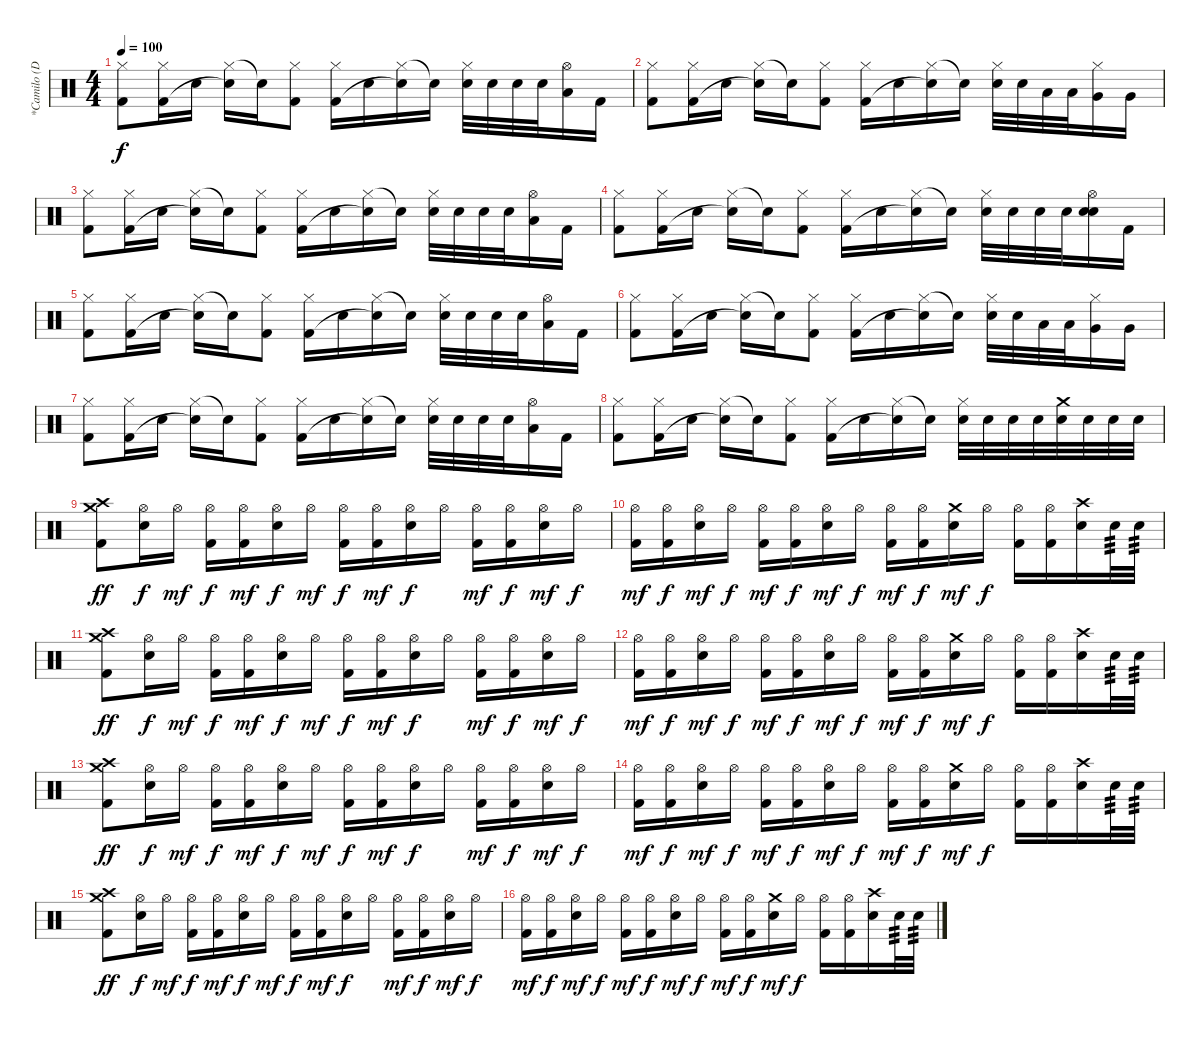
\track ("*Camilo (Drums)" "*Camilo (D") {instrument percussion}
\staff {score}
\articulation defaults
\ts (4 4)
\tempo 100
\clef neutral
\ks c
("Hi-Hat (closed)" "Kick (hit) 2").8{dy f} ("Hi-Hat (closed)" "Kick (hit) 2").16 "Electric Snare (hit)".16 ("Hi-Hat (closed)" "Snare (hit)"{t}).16 "Snare (hit)"{t}.16 ("Hi-Hat (closed)" "Kick (hit) 2").8 ("Hi-Hat (closed)" "Kick (hit) 2").16 "Electric Snare (hit)".16 ("Hi-Hat (closed)" "Snare (hit)"{t}).16 "Snare (hit)"{t}.16 ("Hi-Hat (closed)" "Electric Snare (hit)").32 "Electric Snare (hit)".32 "Electric Snare (hit)".32 "Electric Snare (hit)".32 ("Hi-Hat (open)" "Low Tom (hit)").16 "Kick (hit) 2".16 |
("Hi-Hat (closed)" "Kick (hit) 2").8 ("Hi-Hat (closed)" "Kick (hit) 2").16 "Electric Snare (hit)".16 ("Hi-Hat (closed)" "Snare (hit)"{t}).16 "Snare (hit)"{t}.16 ("Hi-Hat (closed)" "Kick (hit) 2").8 ("Hi-Hat (closed)" "Kick (hit) 2").16 "Electric Snare (hit)".16 ("Hi-Hat (closed)" "Snare (hit)"{t}).16 "Snare (hit)"{t}.16 ("Hi-Hat (closed)" "Electric Snare (hit)").32 "Electric Snare (hit)".32 "Low Tom (hit)".32 "Low Tom (hit)".32 ("Hi-Hat (closed)" "Very Low Tom (hit)").16 "Very Low Tom (hit)".16 |
("Hi-Hat (closed)" "Kick (hit) 2").8 ("Hi-Hat (closed)" "Kick (hit) 2").16 "Electric Snare (hit)".16 ("Hi-Hat (closed)" "Snare (hit)"{t}).16 "Snare (hit)"{t}.16 ("Hi-Hat (closed)" "Kick (hit) 2").8 ("Hi-Hat (closed)" "Kick (hit) 2").16 "Electric Snare (hit)".16 ("Hi-Hat (closed)" "Snare (hit)"{t}).16 "Snare (hit)"{t}.16 ("Hi-Hat (closed)" "Electric Snare (hit)").32 "Electric Snare (hit)".32 "Electric Snare (hit)".32 "Electric Snare (hit)".32 ("Hi-Hat (open)" "Low Tom (hit)").16 "Kick (hit) 2".16 |
("Hi-Hat (closed)" "Kick (hit) 2").8 ("Hi-Hat (closed)" "Kick (hit) 2").16 "Electric Snare (hit)".16 ("Hi-Hat (closed)" "Snare (hit)"{t}).16 "Snare (hit)"{t}.16 ("Hi-Hat (closed)" "Kick (hit) 2").8 ("Hi-Hat (closed)" "Kick (hit) 2").16 "Electric Snare (hit)".16 ("Hi-Hat (closed)" "Snare (hit)"{t}).16 "Snare (hit)"{t}.16 ("Hi-Hat (closed)" "Electric Snare (hit)").32 "Electric Snare (hit)".32 "Electric Snare (hit)".32 "Electric Snare (hit)".32 ("Hi-Hat (open)" "Electric Snare (hit)" "Electric Snare (hit)").16 "Kick (hit) 2".16 |
("Hi-Hat (closed)" "Kick (hit) 2").8 ("Hi-Hat (closed)" "Kick (hit) 2").16 "Electric Snare (hit)".16 ("Hi-Hat (closed)" "Snare (hit)"{t}).16 "Snare (hit)"{t}.16 ("Hi-Hat (closed)" "Kick (hit) 2").8 ("Hi-Hat (closed)" "Kick (hit) 2").16 "Electric Snare (hit)".16 ("Hi-Hat (closed)" "Snare (hit)"{t}).16 "Snare (hit)"{t}.16 ("Hi-Hat (closed)" "Electric Snare (hit)").32 "Electric Snare (hit)".32 "Electric Snare (hit)".32 "Electric Snare (hit)".32 ("Hi-Hat (open)" "Low Tom (hit)").16 "Kick (hit) 2".16 |
("Hi-Hat (closed)" "Kick (hit) 2").8 ("Hi-Hat (closed)" "Kick (hit) 2").16 "Electric Snare (hit)".16 ("Hi-Hat (closed)" "Snare (hit)"{t}).16 "Snare (hit)"{t}.16 ("Hi-Hat (closed)" "Kick (hit) 2").8 ("Hi-Hat (closed)" "Kick (hit) 2").16 "Electric Snare (hit)".16 ("Hi-Hat (closed)" "Snare (hit)"{t}).16 "Snare (hit)"{t}.16 ("Hi-Hat (closed)" "Electric Snare (hit)").32 "Electric Snare (hit)".32 "Low Tom (hit)".32 "Low Tom (hit)".32 ("Hi-Hat (closed)" "Very Low Tom (hit)").16 "Very Low Tom (hit)".16 |
("Hi-Hat (closed)" "Kick (hit) 2").8 ("Hi-Hat (closed)" "Kick (hit) 2").16 "Electric Snare (hit)".16 ("Hi-Hat (closed)" "Snare (hit)"{t}).16 "Snare (hit)"{t}.16 ("Hi-Hat (closed)" "Kick (hit) 2").8 ("Hi-Hat (closed)" "Kick (hit) 2").16 "Electric Snare (hit)".16 ("Hi-Hat (closed)" "Snare (hit)"{t}).16 "Snare (hit)"{t}.16 ("Hi-Hat (closed)" "Electric Snare (hit)").32 "Electric Snare (hit)".32 "Electric Snare (hit)".32 "Electric Snare (hit)".32 ("Hi-Hat (open)" "Low Tom (hit)").16 "Kick (hit) 2".16 |
("Hi-Hat (closed)" "Kick (hit) 2").8 ("Hi-Hat (closed)" "Kick (hit) 2").16 "Electric Snare (hit)".16 ("Hi-Hat (closed)" "Snare (hit)"{t}).16 "Snare (hit)"{t}.16 ("Hi-Hat (closed)" "Kick (hit) 2").8 ("Hi-Hat (closed)" "Kick (hit) 2").16 "Electric Snare (hit)".16 ("Hi-Hat (closed)" "Snare (hit)"{t}).16 "Snare (hit)"{t}.16 ("Hi-Hat (closed)" "Electric Snare (hit)").32 "Electric Snare (hit)".32 "Electric Snare (hit)".32 "Electric Snare (hit)".32 ("Crash medium (hit)" "Electric Snare (hit)").32 "Electric Snare (hit)".32 "Electric Snare (hit)".32 "Electric Snare (hit)".32 |
("Crash high (hit)" "Crash medium (hit)" "Kick (hit) 2").8{dy ff} ("Hi-Hat (open)" "Electric Snare (hit)").16{dy f} "Hi-Hat (open)".16{dy mf} ("Hi-Hat (open)" "Kick (hit) 2").16{dy f} ("Hi-Hat (open)" "Kick (hit) 2").16{dy mf} ("Hi-Hat (open)" "Electric Snare (hit)").16{dy f} "Hi-Hat (open)".16{dy mf} ("Hi-Hat (open)" "Kick (hit) 2").16{dy f} ("Hi-Hat (open)" "Kick (hit) 2").16{dy mf} ("Hi-Hat (open)" "Electric Snare (hit)").16{dy f} "Hi-Hat (open)".16 ("Hi-Hat (open)" "Kick (hit) 2").16{dy mf} ("Hi-Hat (open)" "Kick (hit) 2").16{dy f} ("Hi-Hat (open)" "Electric Snare (hit)").16{dy mf} "Hi-Hat (open)".16{dy f} |
("Hi-Hat (open)" "Kick (hit) 2").16{dy mf} ("Hi-Hat (open)" "Kick (hit) 2").16{dy f} ("Hi-Hat (open)" "Electric Snare (hit)").16{dy mf} "Hi-Hat (open)".16{dy f} ("Hi-Hat (open)" "Kick (hit) 2").16{dy mf} ("Hi-Hat (open)" "Kick (hit) 2").16{dy f} ("Hi-Hat (open)" "Electric Snare (hit)").16{dy mf} "Hi-Hat (open)".16{dy f} ("Hi-Hat (open)" "Kick (hit) 2").16{dy mf} ("Hi-Hat (open)" "Kick (hit) 2").16{dy f} ("Crash medium (hit)" "Electric Snare (hit)").16{dy mf} "Hi-Hat (open)".16{dy f} ("Hi-Hat (open)" "Kick (hit) 2").16 ("Hi-Hat (open)" "Kick (hit) 2").16 ("Crash high (hit)" "Electric Snare (hit)").16 "Electric Snare (hit)".32{tp 3} "Electric Snare (hit)".32{tp 3} |
("Crash high (hit)" "Crash medium (hit)" "Kick (hit) 2").8{dy ff} ("Hi-Hat (open)" "Electric Snare (hit)").16{dy f} "Hi-Hat (open)".16{dy mf} ("Hi-Hat (open)" "Kick (hit) 2").16{dy f} ("Hi-Hat (open)" "Kick (hit) 2").16{dy mf} ("Hi-Hat (open)" "Electric Snare (hit)").16{dy f} "Hi-Hat (open)".16{dy mf} ("Hi-Hat (open)" "Kick (hit) 2").16{dy f} ("Hi-Hat (open)" "Kick (hit) 2").16{dy mf} ("Hi-Hat (open)" "Electric Snare (hit)").16{dy f} "Hi-Hat (open)".16 ("Hi-Hat (open)" "Kick (hit) 2").16{dy mf} ("Hi-Hat (open)" "Kick (hit) 2").16{dy f} ("Hi-Hat (open)" "Electric Snare (hit)").16{dy mf} "Hi-Hat (open)".16{dy f} |
("Hi-Hat (open)" "Kick (hit) 2").16{dy mf} ("Hi-Hat (open)" "Kick (hit) 2").16{dy f} ("Hi-Hat (open)" "Electric Snare (hit)").16{dy mf} "Hi-Hat (open)".16{dy f} ("Hi-Hat (open)" "Kick (hit) 2").16{dy mf} ("Hi-Hat (open)" "Kick (hit) 2").16{dy f} ("Hi-Hat (open)" "Electric Snare (hit)").16{dy mf} "Hi-Hat (open)".16{dy f} ("Hi-Hat (open)" "Kick (hit) 2").16{dy mf} ("Hi-Hat (open)" "Kick (hit) 2").16{dy f} ("Crash medium (hit)" "Electric Snare (hit)").16{dy mf} "Hi-Hat (open)".16{dy f} ("Hi-Hat (open)" "Kick (hit) 2").16 ("Hi-Hat (open)" "Kick (hit) 2").16 ("Crash high (hit)" "Electric Snare (hit)").16 "Electric Snare (hit)".32{tp 3} "Electric Snare (hit)".32{tp 3} |
("Crash high (hit)" "Crash medium (hit)" "Kick (hit) 2").8{dy ff} ("Hi-Hat (open)" "Electric Snare (hit)").16{dy f} "Hi-Hat (open)".16{dy mf} ("Hi-Hat (open)" "Kick (hit) 2").16{dy f} ("Hi-Hat (open)" "Kick (hit) 2").16{dy mf} ("Hi-Hat (open)" "Electric Snare (hit)").16{dy f} "Hi-Hat (open)".16{dy mf} ("Hi-Hat (open)" "Kick (hit) 2").16{dy f} ("Hi-Hat (open)" "Kick (hit) 2").16{dy mf} ("Hi-Hat (open)" "Electric Snare (hit)").16{dy f} "Hi-Hat (open)".16 ("Hi-Hat (open)" "Kick (hit) 2").16{dy mf} ("Hi-Hat (open)" "Kick (hit) 2").16{dy f} ("Hi-Hat (open)" "Electric Snare (hit)").16{dy mf} "Hi-Hat (open)".16{dy f} |
("Hi-Hat (open)" "Kick (hit) 2").16{dy mf} ("Hi-Hat (open)" "Kick (hit) 2").16{dy f} ("Hi-Hat (open)" "Electric Snare (hit)").16{dy mf} "Hi-Hat (open)".16{dy f} ("Hi-Hat (open)" "Kick (hit) 2").16{dy mf} ("Hi-Hat (open)" "Kick (hit) 2").16{dy f} ("Hi-Hat (open)" "Electric Snare (hit)").16{dy mf} "Hi-Hat (open)".16{dy f} ("Hi-Hat (open)" "Kick (hit) 2").16{dy mf} ("Hi-Hat (open)" "Kick (hit) 2").16{dy f} ("Crash medium (hit)" "Electric Snare (hit)").16{dy mf} "Hi-Hat (open)".16{dy f} ("Hi-Hat (open)" "Kick (hit) 2").16 ("Hi-Hat (open)" "Kick (hit) 2").16 ("Crash high (hit)" "Electric Snare (hit)").16 "Electric Snare (hit)".32{tp 3} "Electric Snare (hit)".32{tp 3} |
("Crash high (hit)" "Crash medium (hit)" "Kick (hit) 2").8{dy ff} ("Hi-Hat (open)" "Electric Snare (hit)").16{dy f} "Hi-Hat (open)".16{dy mf} ("Hi-Hat (open)" "Kick (hit) 2").16{dy f} ("Hi-Hat (open)" "Kick (hit) 2").16{dy mf} ("Hi-Hat (open)" "Electric Snare (hit)").16{dy f} "Hi-Hat (open)".16{dy mf} ("Hi-Hat (open)" "Kick (hit) 2").16{dy f} ("Hi-Hat (open)" "Kick (hit) 2").16{dy mf} ("Hi-Hat (open)" "Electric Snare (hit)").16{dy f} "Hi-Hat (open)".16 ("Hi-Hat (open)" "Kick (hit) 2").16{dy mf} ("Hi-Hat (open)" "Kick (hit) 2").16{dy f} ("Hi-Hat (open)" "Electric Snare (hit)").16{dy mf} "Hi-Hat (open)".16{dy f} |
("Hi-Hat (open)" "Kick (hit) 2").16{dy mf} ("Hi-Hat (open)" "Kick (hit) 2").16{dy f} ("Hi-Hat (open)" "Electric Snare (hit)").16{dy mf} "Hi-Hat (open)".16{dy f} ("Hi-Hat (open)" "Kick (hit) 2").16{dy mf} ("Hi-Hat (open)" "Kick (hit) 2").16{dy f} ("Hi-Hat (open)" "Electric Snare (hit)").16{dy mf} "Hi-Hat (open)".16{dy f} ("Hi-Hat (open)" "Kick (hit) 2").16{dy mf} ("Hi-Hat (open)" "Kick (hit) 2").16{dy f} ("Crash medium (hit)" "Electric Snare (hit)").16{dy mf} "Hi-Hat (open)".16{dy f} ("Hi-Hat (open)" "Kick (hit) 2").16 ("Hi-Hat (open)" "Kick (hit) 2").16 ("Crash high (hit)" "Electric Snare (hit)").16 "Electric Snare (hit)".32{tp 3} "Electric Snare (hit)".32{tp 3}
